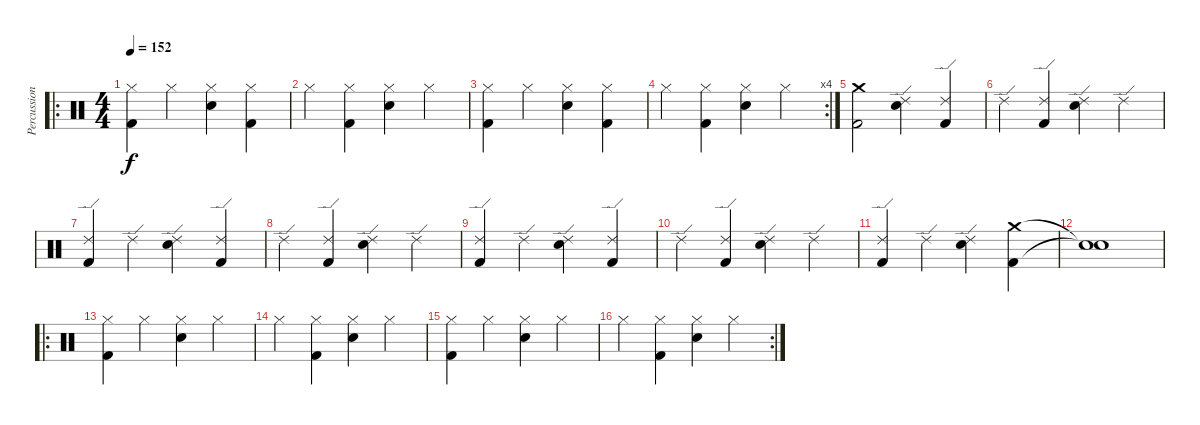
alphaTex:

\track ("Percussion" "Percussion") {instrument percussion}
\staff {score}
\articulation defaults
\ro
\ts (4 4)
\tempo 152
\clef neutral
\ks c
("Hi-Hat (closed)" "Kick (hit) 2").4{dy f} "Hi-Hat (closed)".4 ("Hi-Hat (closed)" "Electric Snare (hit)").4 ("Hi-Hat (closed)" "Kick (hit) 2").4 |
"Hi-Hat (closed)".4 ("Hi-Hat (closed)" "Kick (hit) 2").4 ("Hi-Hat (closed)" "Electric Snare (hit)").4 "Hi-Hat (closed)".4 |
("Hi-Hat (closed)" "Kick (hit) 2").4 "Hi-Hat (closed)".4 ("Hi-Hat (closed)" "Electric Snare (hit)").4 ("Hi-Hat (closed)" "Kick (hit) 2").4 |
\rc 4 "Hi-Hat (closed)".4
("Hi-Hat (closed)" "Kick (hit) 2").4 ("Hi-Hat (closed)" "Electric Snare (hit)").4 "Hi-Hat (closed)".4 |
("Crash medium (hit)" "Kick (hit) 2").2 ("Ride (edge) 2" "Electric Snare (hit)").4 ("Ride (edge) 2" "Kick (hit) 2").4 |
"Ride (edge) 2".4 ("Ride (edge) 2" "Kick (hit) 2").4 ("Ride (edge) 2" "Electric Snare (hit)").4 "Ride (edge) 2".4 |
("Ride (edge) 2" "Kick (hit) 2").4 "Ride (edge) 2".4 ("Ride (edge) 2" "Electric Snare (hit)").4 ("Ride (edge) 2" "Kick (hit) 2").4 |
"Ride (edge) 2".4 ("Ride (edge) 2" "Kick (hit) 2").4 ("Ride (edge) 2" "Electric Snare (hit)").4 "Ride (edge) 2".4 |
("Ride (edge) 2" "Kick (hit) 2").4 "Ride (edge) 2".4 ("Ride (edge) 2" "Electric Snare (hit)").4 ("Ride (edge) 2" "Kick (hit) 2").4 |
"Ride (edge) 2".4 ("Ride (edge) 2" "Kick (hit) 2").4 ("Ride (edge) 2" "Electric Snare (hit)").4 "Ride (edge) 2".4 |
("Ride (edge) 2" "Kick (hit) 2").4 "Ride (edge) 2".4 ("Ride (edge) 2" "Electric Snare (hit)").4 ("Crash medium (hit)" "Kick (hit) 2").4 |
("Snare (hit)"{t} "Snare (hit)"{t}).1 |
\ro
("Hi-Hat (closed)" "Kick (hit) 2").4 "Hi-Hat (closed)".4 ("Hi-Hat (closed)" "Electric Snare (hit)").4 "Hi-Hat (closed)".4 |
"Hi-Hat (closed)".4 ("Hi-Hat (closed)" "Kick (hit) 2").4 ("Hi-Hat (closed)" "Electric Snare (hit)").4 "Hi-Hat (closed)".4 |
("Hi-Hat (closed)" "Kick (hit) 2").4 "Hi-Hat (closed)".4 ("Hi-Hat (closed)" "Electric Snare (hit)").4 "Hi-Hat (closed)".4 |
\rc 2 "Hi-Hat (closed)".4
("Hi-Hat (closed)" "Kick (hit) 2").4 ("Hi-Hat (closed)" "Electric Snare (hit)").4 "Hi-Hat (closed)".4
